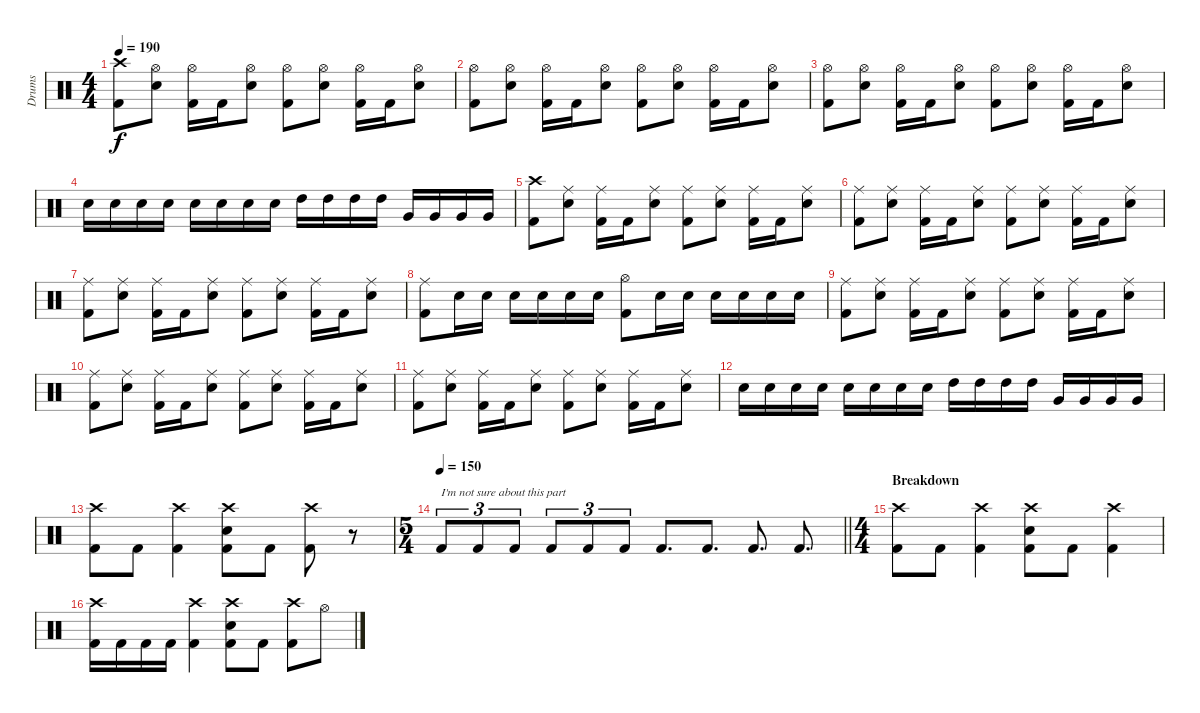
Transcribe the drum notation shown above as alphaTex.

\track ("Drums" "Drums") {instrument percussion}
\staff {score}
\articulation defaults
\ts (4 4)
\tempo 190
\clef neutral
\ks c
("Crash high (hit)" "Kick (hit) 2").8{dy f} ("Hi-Hat (open)" "Snare (hit) 2").8 ("Hi-Hat (open)" "Kick (hit) 2").16 "Kick (hit) 2".16 ("Hi-Hat (open)" "Snare (hit) 2").8 ("Hi-Hat (open)" "Kick (hit) 2").8 ("Hi-Hat (open)" "Snare (hit) 2").8 ("Hi-Hat (open)" "Kick (hit) 2").16 "Kick (hit) 2".16 ("Hi-Hat (open)" "Snare (hit) 2").8 |
("Hi-Hat (open)" "Kick (hit) 2").8 ("Hi-Hat (open)" "Snare (hit) 2").8 ("Hi-Hat (open)" "Kick (hit) 2").16 "Kick (hit) 2".16 ("Hi-Hat (open)" "Snare (hit) 2").8 ("Hi-Hat (open)" "Kick (hit) 2").8 ("Hi-Hat (open)" "Snare (hit) 2").8 ("Hi-Hat (open)" "Kick (hit) 2").16 "Kick (hit) 2".16 ("Hi-Hat (open)" "Snare (hit) 2").8 |
("Hi-Hat (open)" "Kick (hit) 2").8 ("Hi-Hat (open)" "Snare (hit) 2").8 ("Hi-Hat (open)" "Kick (hit) 2").16 "Kick (hit) 2".16 ("Hi-Hat (open)" "Snare (hit) 2").8 ("Hi-Hat (open)" "Kick (hit) 2").8 ("Hi-Hat (open)" "Snare (hit) 2").8 ("Hi-Hat (open)" "Kick (hit) 2").16 "Kick (hit) 2".16 ("Hi-Hat (open)" "Snare (hit) 2").8 |
"Snare (hit) 2".16 "Snare (hit) 2".16 "Snare (hit) 2".16 "Snare (hit) 2".16 "Snare (hit) 2".16 "Snare (hit) 2".16 "Snare (hit) 2".16 "Snare (hit) 2".16 "High Tom (hit)".16 "High Tom (hit)".16 "High Tom (hit)".16 "High Tom (hit)".16 "Very Low Tom (hit)".16 "Very Low Tom (hit)".16 "Very Low Tom (hit)".16 "Very Low Tom (hit)".16 |
("Crash high (hit)" "Kick (hit) 2").8 ("Ride (middle)" "Snare (hit) 2").8 ("Ride (middle)" "Kick (hit) 2").16 "Kick (hit) 2".16 ("Ride (middle)" "Snare (hit) 2").8 ("Ride (middle)" "Kick (hit) 2").8 ("Ride (middle)" "Snare (hit) 2").8 ("Ride (middle)" "Kick (hit) 2").16 "Kick (hit) 2".16 ("Ride (middle)" "Snare (hit) 2").8 |
("Ride (middle)" "Kick (hit) 2").8 ("Ride (middle)" "Snare (hit) 2").8 ("Ride (middle)" "Kick (hit) 2").16 "Kick (hit) 2".16 ("Ride (middle)" "Snare (hit) 2").8 ("Ride (middle)" "Kick (hit) 2").8 ("Ride (middle)" "Snare (hit) 2").8 ("Ride (middle)" "Kick (hit) 2").16 "Kick (hit) 2".16 ("Ride (middle)" "Snare (hit) 2").8 |
("Ride (middle)" "Kick (hit) 2").8 ("Ride (middle)" "Snare (hit) 2").8 ("Ride (middle)" "Kick (hit) 2").16 "Kick (hit) 2".16 ("Ride (middle)" "Snare (hit) 2").8 ("Ride (middle)" "Kick (hit) 2").8 ("Ride (middle)" "Snare (hit) 2").8 ("Ride (middle)" "Kick (hit) 2").16 "Kick (hit) 2".16 ("Ride (middle)" "Snare (hit) 2").8 |
("Ride (middle)" "Kick (hit) 2").8 "Snare (hit) 2".16 "Snare (hit) 2".16 "Snare (hit) 2".16 "Snare (hit) 2".16 "Snare (hit) 2".16 "Snare (hit) 2".16 ("Hi-Hat (open)" "Kick (hit) 2").8 "Snare (hit) 2".16 "Snare (hit) 2".16 "Snare (hit) 2".16 "Snare (hit) 2".16 "Snare (hit) 2".16 "Snare (hit) 2".16 |
("Ride (middle)" "Kick (hit) 2").8 ("Ride (middle)" "Snare (hit) 2").8 ("Ride (middle)" "Kick (hit) 2").16 "Kick (hit) 2".16 ("Ride (middle)" "Snare (hit) 2").8 ("Ride (middle)" "Kick (hit) 2").8 ("Ride (middle)" "Snare (hit) 2").8 ("Ride (middle)" "Kick (hit) 2").16 "Kick (hit) 2".16 ("Ride (middle)" "Snare (hit) 2").8 |
("Ride (middle)" "Kick (hit) 2").8 ("Ride (middle)" "Snare (hit) 2").8 ("Ride (middle)" "Kick (hit) 2").16 "Kick (hit) 2".16 ("Ride (middle)" "Snare (hit) 2").8 ("Ride (middle)" "Kick (hit) 2").8 ("Ride (middle)" "Snare (hit) 2").8 ("Ride (middle)" "Kick (hit) 2").16 "Kick (hit) 2".16 ("Ride (middle)" "Snare (hit) 2").8 |
("Ride (middle)" "Kick (hit) 2").8 ("Ride (middle)" "Snare (hit) 2").8 ("Ride (middle)" "Kick (hit) 2").16 "Kick (hit) 2".16 ("Ride (middle)" "Snare (hit) 2").8 ("Ride (middle)" "Kick (hit) 2").8 ("Ride (middle)" "Snare (hit) 2").8 ("Ride (middle)" "Kick (hit) 2").16 "Kick (hit) 2".16 ("Ride (middle)" "Snare (hit) 2").8 |
"Snare (hit) 2".16 "Snare (hit) 2".16 "Snare (hit) 2".16 "Snare (hit) 2".16 "Snare (hit) 2".16 "Snare (hit) 2".16 "Snare (hit) 2".16 "Snare (hit) 2".16 "High Tom (hit)".16 "High Tom (hit)".16 "High Tom (hit)".16 "High Tom (hit)".16 "Very Low Tom (hit)".16 "Very Low Tom (hit)".16 "Very Low Tom (hit)".16 "Very Low Tom (hit)".16 |
("Crash high (hit)" "Kick (hit) 2").8 "Kick (hit) 2".8 ("Crash high (hit)" "Kick (hit) 2").4 ("Crash high (hit)" "Snare (hit) 2" "Kick (hit) 2").8 "Kick (hit) 2".8 ("Crash high (hit)" "Kick (hit) 2").8 r.8 |
\ts (5 4)
\tempo 150
\barLineRight lightlight "Kick (hit) 2".8{tu (3 2) txt "I'm not sure about this part"} "Kick (hit) 2".8{tu (3 2)} "Kick (hit) 2".8{tu (3 2)} "Kick (hit) 2".8{tu (3 2)} "Kick (hit) 2".8{tu (3 2)} "Kick (hit) 2".8{tu (3 2)} "Kick (hit) 2".8{d} "Kick (hit) 2".8{d} "Kick (hit) 2".8{d} "Kick (hit) 2".8{d}
|
\ts (4 4)
\section ("" "Breakdown")
("Crash high (hit)" "Kick (hit) 2").8 "Kick (hit) 2".8 ("Crash high (hit)" "Kick (hit) 2").4 ("Crash high (hit)" "Snare (hit) 2" "Kick (hit) 2").8 "Kick (hit) 2".8 ("Crash high (hit)" "Kick (hit) 2").4 |
("Crash high (hit)" "Kick (hit) 2").16 "Kick (hit) 2".16 "Kick (hit) 2".16 "Kick (hit) 2".16 ("Crash high (hit)" "Kick (hit) 2").4 ("Crash high (hit)" "Snare (hit) 2" "Kick (hit) 2").8 "Kick (hit) 2".8 ("Crash high (hit)" "Kick (hit) 2").8 "Hi-Hat (open)".8
